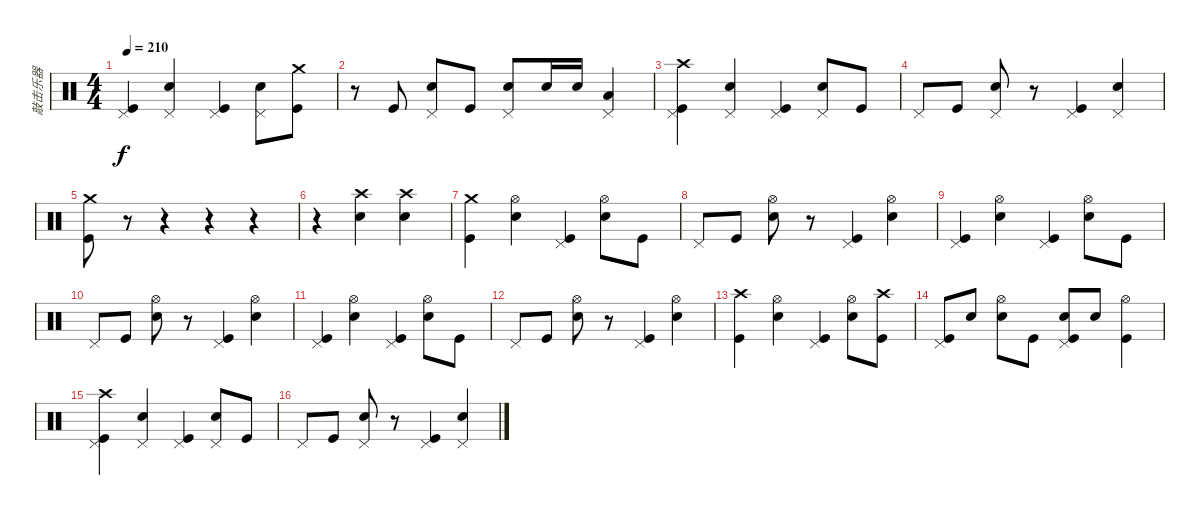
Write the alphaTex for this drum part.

\track ("敲击乐器" "敲击乐器") {instrument percussion}
\staff {score}
\articulation defaults
\ts (4 4)
\tempo 210
\clef neutral
\ks c
("Pedal Hi-Hat (hit)" "Kick (hit)").4{dy f} ("Pedal Hi-Hat (hit)" "Snare (hit) 2").4 ("Pedal Hi-Hat (hit)" "Kick (hit)").4 ("Pedal Hi-Hat (hit)" "Snare (hit) 2").8 ("Crash medium (hit)" "Kick (hit)").8 |
r.8 "Kick (hit)".8 ("Pedal Hi-Hat (hit)" "Snare (hit) 2").8 "Kick (hit)".8 ("Pedal Hi-Hat (hit)" "Snare (hit) 2").8 "Snare (hit) 2".16 "Snare (hit) 2".16 ("Low Floor Tom (hit)" "Pedal Hi-Hat (hit)").4 |
("Crash high (hit)" "Pedal Hi-Hat (hit)" "Kick (hit)").4 ("Pedal Hi-Hat (hit)" "Snare (hit) 2").4 ("Pedal Hi-Hat (hit)" "Kick (hit)").4 ("Pedal Hi-Hat (hit)" "Snare (hit) 2").8 "Kick (hit)".8 |
"Pedal Hi-Hat (hit)".8 "Kick (hit)".8 ("Pedal Hi-Hat (hit)" "Snare (hit) 2").8 r.8 ("Kick (hit)" "Pedal Hi-Hat (hit)").4 ("Snare (hit) 2" "Pedal Hi-Hat (hit)").4 |
("Crash medium (hit)" "Kick (hit)").8 r.8 r.4 r.4 r.4 |
r.4 ("Crash high (hit)" "Snare (hit) 2").4 ("Crash high (hit)" "Snare (hit) 2").4 |
("Crash medium (hit)" "Kick (hit)").4 ("Hi-Hat (open)" "Snare (hit) 2").4 ("Pedal Hi-Hat (hit)" "Kick (hit)").4 ("Hi-Hat (open)" "Snare (hit) 2").8 "Kick (hit)".8 |
"Pedal Hi-Hat (hit)".8 "Kick (hit)".8 ("Hi-Hat (open)" "Snare (hit) 2").8 r.8 ("Kick (hit)" "Pedal Hi-Hat (hit)").4 ("Snare (hit) 2" "Hi-Hat (open)").4 |
("Pedal Hi-Hat (hit)" "Kick (hit)").4 ("Hi-Hat (open)" "Snare (hit) 2").4 ("Pedal Hi-Hat (hit)" "Kick (hit)").4 ("Hi-Hat (open)" "Snare (hit) 2").8 "Kick (hit)".8 |
"Pedal Hi-Hat (hit)".8 "Kick (hit)".8 ("Hi-Hat (open)" "Snare (hit) 2").8 r.8 ("Kick (hit)" "Pedal Hi-Hat (hit)").4 ("Snare (hit) 2" "Hi-Hat (open)").4 |
("Pedal Hi-Hat (hit)" "Kick (hit)").4 ("Hi-Hat (open)" "Snare (hit) 2").4 ("Pedal Hi-Hat (hit)" "Kick (hit)").4 ("Hi-Hat (open)" "Snare (hit) 2").8 "Kick (hit)".8 |
"Pedal Hi-Hat (hit)".8 "Kick (hit)".8 ("Hi-Hat (open)" "Snare (hit) 2").8 r.8 ("Kick (hit)" "Pedal Hi-Hat (hit)").4 ("Snare (hit) 2" "Hi-Hat (open)").4 |
("Crash high (hit)" "Kick (hit)").4 ("Hi-Hat (open)" "Snare (hit) 2").4 ("Pedal Hi-Hat (hit)" "Kick (hit)").4 ("Hi-Hat (open)" "Snare (hit) 2").8 ("Crash high (hit)" "Kick (hit)").8 |
("Pedal Hi-Hat (hit)" "Kick (hit)").8 "Snare (hit) 2".8 ("Hi-Hat (open)" "Snare (hit) 2").8 "Kick (hit)".8 ("Snare (hit) 2" "Pedal Hi-Hat (hit)" "Kick (hit)").8 "Snare (hit) 2".8 ("Kick (hit)" "Hi-Hat (open)").4 |
("Crash high (hit)" "Pedal Hi-Hat (hit)" "Kick (hit)").4 ("Pedal Hi-Hat (hit)" "Snare (hit) 2").4 ("Pedal Hi-Hat (hit)" "Kick (hit)").4 ("Pedal Hi-Hat (hit)" "Snare (hit) 2").8 "Kick (hit)".8 |
"Pedal Hi-Hat (hit)".8 "Kick (hit)".8 ("Pedal Hi-Hat (hit)" "Snare (hit) 2").8 r.8 ("Kick (hit)" "Pedal Hi-Hat (hit)").4 ("Snare (hit) 2" "Pedal Hi-Hat (hit)").4
